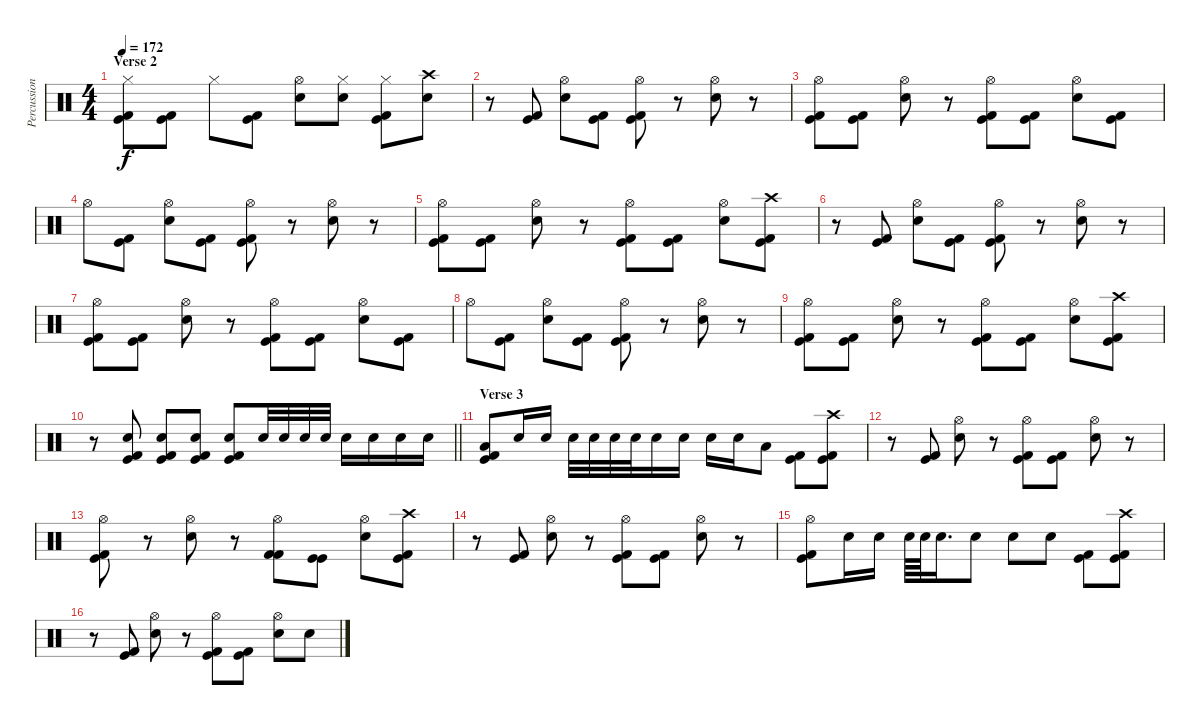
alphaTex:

\track ("Percussion" "Percussion") {instrument percussion}
\staff {score}
\articulation defaults
\ts (4 4)
\section ("" "Verse 2")
\tempo 172
\clef neutral
\ks c
("Hi-Hat (closed)" "Kick (hit)" "Kick (hit) 2").8{dy f} ("Kick (hit)" "Kick (hit) 2").8 "Hi-Hat (closed)".8 ("Kick (hit)" "Kick (hit) 2").8 ("Hi-Hat (open)" "Snare (hit) 2").8 ("Hi-Hat (closed)" "Snare (hit) 2").8 ("Hi-Hat (closed)" "Kick (hit)" "Kick (hit) 2").8 ("Crash high (hit)" "Snare (hit) 2").8 |
r.8 ("Kick (hit)" "Kick (hit) 2").8 ("Hi-Hat (open)" "Snare (hit) 2").8 ("Kick (hit)" "Kick (hit) 2").8 ("Hi-Hat (open)" "Kick (hit)" "Kick (hit) 2").8 r.8 ("Hi-Hat (open)" "Snare (hit) 2").8 r.8 |
("Hi-Hat (open)" "Kick (hit)" "Kick (hit) 2").8 ("Kick (hit)" "Kick (hit) 2").8 ("Hi-Hat (open)" "Snare (hit) 2").8 r.8 ("Hi-Hat (open)" "Kick (hit)" "Kick (hit) 2").8 ("Kick (hit)" "Kick (hit) 2").8 ("Hi-Hat (open)" "Snare (hit) 2").8 ("Kick (hit)" "Kick (hit) 2").8 |
"Hi-Hat (open)".8 ("Kick (hit)" "Kick (hit) 2").8 ("Hi-Hat (open)" "Snare (hit) 2").8 ("Kick (hit)" "Kick (hit) 2").8 ("Hi-Hat (open)" "Kick (hit)" "Kick (hit) 2").8 r.8 ("Hi-Hat (open)" "Snare (hit) 2").8 r.8 |
("Hi-Hat (open)" "Kick (hit)" "Kick (hit) 2").8 ("Kick (hit)" "Kick (hit) 2").8 ("Hi-Hat (open)" "Snare (hit) 2").8 r.8 ("Hi-Hat (open)" "Kick (hit)" "Kick (hit) 2").8 ("Kick (hit)" "Kick (hit) 2").8 ("Hi-Hat (open)" "Snare (hit) 2").8 ("Crash high (hit)" "Kick (hit)" "Kick (hit) 2").8 |
r.8 ("Kick (hit)" "Kick (hit) 2").8 ("Hi-Hat (open)" "Snare (hit) 2").8 ("Kick (hit)" "Kick (hit) 2").8 ("Hi-Hat (open)" "Kick (hit)" "Kick (hit) 2").8 r.8 ("Hi-Hat (open)" "Snare (hit) 2").8 r.8 |
("Hi-Hat (open)" "Kick (hit)" "Kick (hit) 2").8 ("Kick (hit)" "Kick (hit) 2").8 ("Hi-Hat (open)" "Snare (hit) 2").8 r.8 ("Hi-Hat (open)" "Kick (hit)" "Kick (hit) 2").8 ("Kick (hit)" "Kick (hit) 2").8 ("Hi-Hat (open)" "Snare (hit) 2").8 ("Kick (hit)" "Kick (hit) 2").8 |
"Hi-Hat (open)".8 ("Kick (hit)" "Kick (hit) 2").8 ("Hi-Hat (open)" "Snare (hit) 2").8 ("Kick (hit)" "Kick (hit) 2").8 ("Hi-Hat (open)" "Kick (hit)" "Kick (hit) 2").8 r.8 ("Hi-Hat (open)" "Snare (hit) 2").8 r.8 |
("Hi-Hat (open)" "Kick (hit)" "Kick (hit) 2").8 ("Kick (hit)" "Kick (hit) 2").8 ("Hi-Hat (open)" "Snare (hit) 2").8 r.8 ("Hi-Hat (open)" "Kick (hit)" "Kick (hit) 2").8 ("Kick (hit)" "Kick (hit) 2").8 ("Hi-Hat (open)" "Snare (hit) 2").8 ("Crash high (hit)" "Kick (hit)" "Kick (hit) 2").8 |
\barLineRight lightlight
r.8 ("Snare (hit) 2" "Kick (hit)" "Kick (hit) 2").8 ("Snare (hit) 2" "Kick (hit)" "Kick (hit) 2").8 ("Snare (hit) 2" "Kick (hit)" "Kick (hit) 2").8 ("Snare (hit) 2" "Kick (hit)" "Kick (hit) 2").8 "Snare (hit) 2".32 "Snare (hit) 2".32 "Snare (hit) 2".32 "Snare (hit) 2".32 "Snare (hit) 2".16 "Snare (hit) 2".16 "Snare (hit) 2".16 "Snare (hit) 2".16 |
\section ("" "Verse 3")
("Low Tom (hit)" "Kick (hit)" "Kick (hit) 2").8 "Snare (hit) 2".16 "Snare (hit) 2".16 "Snare (hit) 2".32 "Snare (hit) 2".32 "Snare (hit) 2".32 "Snare (hit) 2".32 "Snare (hit) 2".16 "Snare (hit) 2".16 "Snare (hit) 2".16 "Snare (hit) 2".16 "Low Tom (hit)".8 ("Kick (hit)" "Kick (hit) 2").8 ("Crash high (hit)" "Kick (hit)" "Kick (hit) 2").8 |
r.8 ("Kick (hit)" "Kick (hit) 2").8 ("Hi-Hat (open)" "Snare (hit) 2").8 r.8 ("Hi-Hat (open)" "Kick (hit)" "Kick (hit) 2").8 ("Kick (hit)" "Kick (hit) 2").8 ("Hi-Hat (open)" "Snare (hit) 2").8 r.8 |
("Hi-Hat (open)" "Kick (hit)" "Kick (hit) 2").8 r.8 ("Hi-Hat (open)" "Snare (hit) 2").8 r.8 ("Hi-Hat (open)" "Kick (hit) 2" "Kick (hit) 2").8 ("Kick (hit)" "Kick (hit)").8 ("Hi-Hat (open)" "Snare (hit) 2").8 ("Crash high (hit)" "Kick (hit)" "Kick (hit) 2").8 |
r.8 ("Kick (hit)" "Kick (hit) 2").8 ("Hi-Hat (open)" "Snare (hit) 2").8 r.8 ("Hi-Hat (open)" "Kick (hit)" "Kick (hit) 2").8 ("Kick (hit)" "Kick (hit) 2").8 ("Hi-Hat (open)" "Snare (hit) 2").8 r.8 |
("Hi-Hat (open)" "Kick (hit)" "Kick (hit) 2").8 "Snare (hit) 2".16 "Snare (hit) 2".16 "Snare (hit) 2".64 "Snare (hit) 2".64 "Snare (hit) 2".16{d} "Snare (hit) 2".8 "Snare (hit) 2".8 "Snare (hit) 2".8 ("Kick (hit)" "Kick (hit) 2").8 ("Crash high (hit)" "Kick (hit)" "Kick (hit) 2").8 |
r.8 ("Kick (hit)" "Kick (hit) 2").8 ("Hi-Hat (open)" "Snare (hit) 2").8 r.8 ("Hi-Hat (open)" "Kick (hit)" "Kick (hit) 2").8 ("Kick (hit)" "Kick (hit) 2").8 ("Hi-Hat (open)" "Snare (hit) 2").8 "Snare (hit) 2".8
